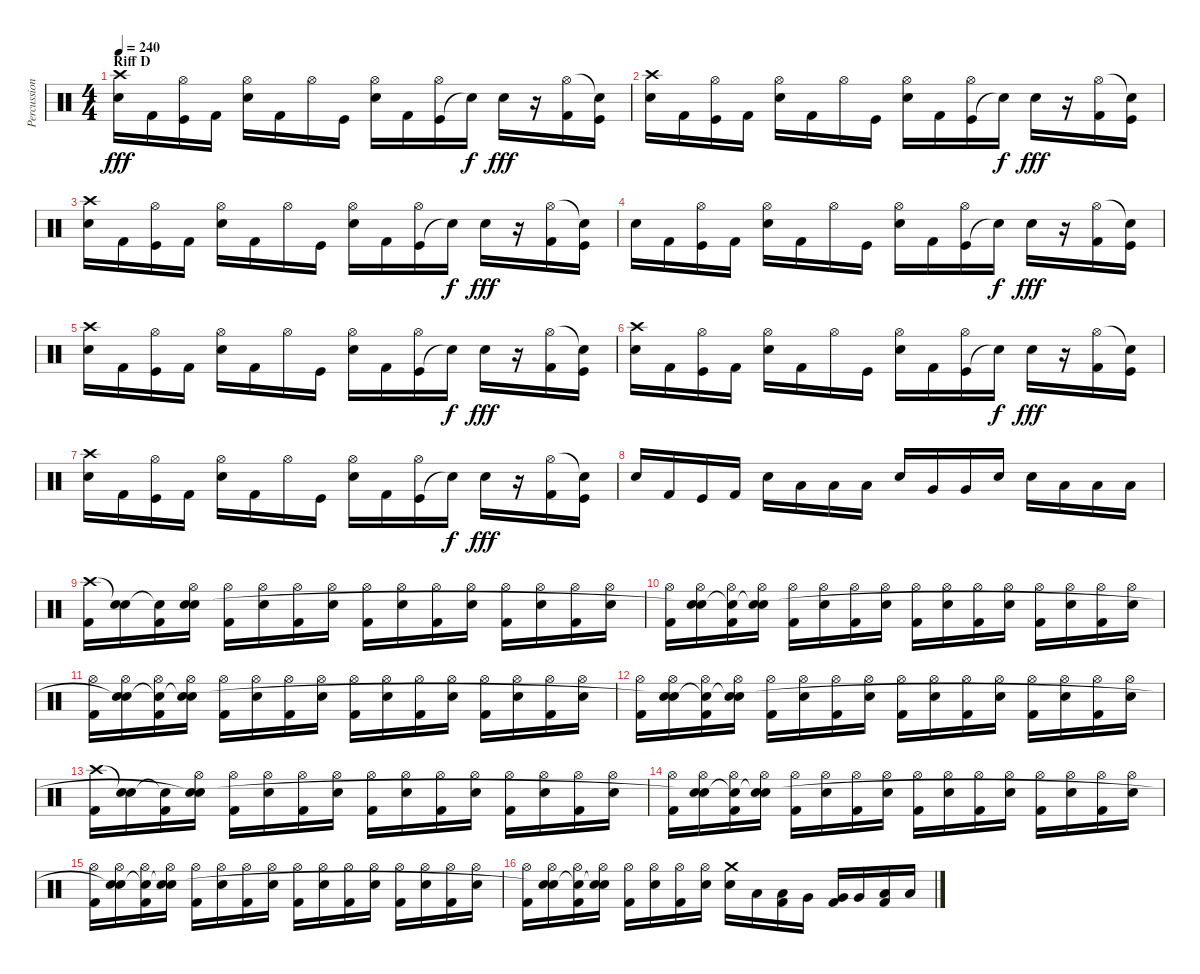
\track ("Percussion" "Percussion") {instrument percussion}
\staff {score}
\articulation defaults
\ts (4 4)
\section ("" "Riff D")
\tempo 240
\clef neutral
\ks c
("Snare (hit) 2" "Crash high (hit)").16{dy fff} "Kick (hit) 2".16 ("Kick (hit)" "Hi-Hat (open)").16 "Kick (hit) 2".16 ("Snare (hit) 2" "Hi-Hat (open)").16 "Kick (hit) 2".16 "Hi-Hat (open)".16 "Kick (hit)".16 ("Snare (hit) 2" "Hi-Hat (open)").16 "Kick (hit) 2".16 ("Kick (hit)" "Hi-Hat (open)").16 "Snare (hit)"{t}.16{dy f} "Snare (hit) 2".16{dy fff} r.16 ("Kick (hit) 2" "Hi-Hat (open)").16 ("Kick (hit)" "Snare (hit)"{t}).16 |
("Snare (hit) 2" "Crash high (hit)").16 "Kick (hit) 2".16 ("Kick (hit)" "Hi-Hat (open)").16 "Kick (hit) 2".16 ("Snare (hit) 2" "Hi-Hat (open)").16 "Kick (hit) 2".16 "Hi-Hat (open)".16 "Kick (hit)".16 ("Snare (hit) 2" "Hi-Hat (open)").16 "Kick (hit) 2".16 ("Kick (hit)" "Hi-Hat (open)").16 "Snare (hit)"{t}.16{dy f} "Snare (hit) 2".16{dy fff} r.16 ("Kick (hit) 2" "Hi-Hat (open)").16 ("Kick (hit)" "Snare (hit)"{t}).16 |
("Snare (hit) 2" "Crash high (hit)").16 "Kick (hit) 2".16 ("Kick (hit)" "Hi-Hat (open)").16 "Kick (hit) 2".16 ("Snare (hit) 2" "Hi-Hat (open)").16 "Kick (hit) 2".16 "Hi-Hat (open)".16 "Kick (hit)".16 ("Snare (hit) 2" "Hi-Hat (open)").16 "Kick (hit) 2".16 ("Kick (hit)" "Hi-Hat (open)").16 "Snare (hit)"{t}.16{dy f} "Snare (hit) 2".16{dy fff} r.16 ("Kick (hit) 2" "Hi-Hat (open)").16 ("Kick (hit)" "Snare (hit)"{t}).16 |
"Snare (hit) 2".16 "Kick (hit) 2".16 ("Kick (hit)" "Hi-Hat (open)").16 "Kick (hit) 2".16 ("Snare (hit) 2" "Hi-Hat (open)").16 "Kick (hit) 2".16 "Hi-Hat (open)".16 "Kick (hit)".16 ("Snare (hit) 2" "Hi-Hat (open)").16 "Kick (hit) 2".16 ("Kick (hit)" "Hi-Hat (open)").16 "Snare (hit)"{t}.16{dy f} "Snare (hit) 2".16{dy fff} r.16 ("Kick (hit) 2" "Hi-Hat (open)").16 ("Kick (hit)" "Snare (hit)"{t}).16 |
("Snare (hit) 2" "Crash high (hit)").16 "Kick (hit) 2".16 ("Kick (hit)" "Hi-Hat (open)").16 "Kick (hit) 2".16 ("Snare (hit) 2" "Hi-Hat (open)").16 "Kick (hit) 2".16 "Hi-Hat (open)".16 "Kick (hit)".16 ("Snare (hit) 2" "Hi-Hat (open)").16 "Kick (hit) 2".16 ("Kick (hit)" "Hi-Hat (open)").16 "Snare (hit)"{t}.16{dy f} "Snare (hit) 2".16{dy fff} r.16 ("Kick (hit) 2" "Hi-Hat (open)").16 ("Kick (hit)" "Snare (hit)"{t}).16 |
("Snare (hit) 2" "Crash high (hit)").16 "Kick (hit) 2".16 ("Kick (hit)" "Hi-Hat (open)").16 "Kick (hit) 2".16 ("Snare (hit) 2" "Hi-Hat (open)").16 "Kick (hit) 2".16 "Hi-Hat (open)".16 "Kick (hit)".16 ("Snare (hit) 2" "Hi-Hat (open)").16 "Kick (hit) 2".16 ("Kick (hit)" "Hi-Hat (open)").16 "Snare (hit)"{t}.16{dy f} "Snare (hit) 2".16{dy fff} r.16 ("Kick (hit) 2" "Hi-Hat (open)").16 ("Kick (hit)" "Snare (hit)"{t}).16 |
("Snare (hit) 2" "Crash high (hit)").16 "Kick (hit) 2".16 ("Kick (hit)" "Hi-Hat (open)").16 "Kick (hit) 2".16 ("Snare (hit) 2" "Hi-Hat (open)").16 "Kick (hit) 2".16 "Hi-Hat (open)".16 "Kick (hit)".16 ("Snare (hit) 2" "Hi-Hat (open)").16 "Kick (hit) 2".16 ("Kick (hit)" "Hi-Hat (open)").16 "Snare (hit)"{t}.16{dy f} "Snare (hit) 2".16{dy fff} r.16 ("Kick (hit) 2" "Hi-Hat (open)").16 ("Kick (hit)" "Snare (hit)"{t}).16 |
"Snare (hit) 2".16 "Kick (hit) 2".16 "Kick (hit)".16 "Kick (hit) 2".16 "Snare (hit) 2".16 "Low Floor Tom (hit)".16 "Low Floor Tom (hit)".16 "Low Floor Tom (hit)".16 "Snare (hit) 2".16 "Very Low Tom (hit)".16 "Very Low Tom (hit)".16 "Snare (hit) 2".16 "Snare (hit) 2".16 "Low Tom (hit)".16 "Low Tom (hit)".16 "Low Tom (hit)".16 |
("Kick (hit) 2" "Crash high (hit)").16 ("Snare (hit) 2" "Snare (hit)"{t}).16 ("Kick (hit) 2" "Snare (hit)"{t}).16 ("Snare (hit) 2" "Hi-Hat (open)" "Snare (hit)").16 ("Kick (hit) 2" "Hi-Hat (open)").16 ("Snare (hit) 2" "Hi-Hat (open)").16 ("Kick (hit) 2" "Hi-Hat (open)").16 ("Snare (hit) 2" "Hi-Hat (open)").16 ("Kick (hit) 2" "Hi-Hat (open)").16 ("Snare (hit) 2" "Hi-Hat (open)").16 ("Kick (hit) 2" "Hi-Hat (open)").16 ("Snare (hit) 2" "Hi-Hat (open)").16 ("Kick (hit) 2" "Hi-Hat (open)").16 ("Snare (hit) 2" "Hi-Hat (open)").16 ("Kick (hit) 2" "Hi-Hat (open)").16 ("Snare (hit) 2" "Hi-Hat (open)").16 |
("Kick (hit) 2" "Hi-Hat (open)").16 ("Snare (hit) 2" "Hi-Hat (open)" "Snare (hit)"{t}).16 ("Kick (hit) 2" "Hi-Hat (open)" "Snare (hit)"{t}).16 ("Snare (hit) 2" "Hi-Hat (open)" "Snare (hit)"{t}).16 ("Kick (hit) 2" "Hi-Hat (open)").16 ("Snare (hit) 2" "Hi-Hat (open)").16 ("Kick (hit) 2" "Hi-Hat (open)").16 ("Snare (hit) 2" "Hi-Hat (open)").16 ("Kick (hit) 2" "Hi-Hat (open)").16 ("Snare (hit) 2" "Hi-Hat (open)").16 ("Kick (hit) 2" "Hi-Hat (open)").16 ("Snare (hit) 2" "Hi-Hat (open)").16 ("Kick (hit) 2" "Hi-Hat (open)").16 ("Snare (hit) 2" "Hi-Hat (open)").16 ("Kick (hit) 2" "Hi-Hat (open)").16 ("Snare (hit) 2" "Hi-Hat (open)").16 |
("Kick (hit) 2" "Hi-Hat (open)").16 ("Snare (hit) 2" "Hi-Hat (open)" "Snare (hit)"{t}).16 ("Kick (hit) 2" "Hi-Hat (open)" "Snare (hit)"{t}).16 ("Snare (hit) 2" "Hi-Hat (open)" "Snare (hit)"{t}).16 ("Kick (hit) 2" "Hi-Hat (open)").16 ("Snare (hit) 2" "Hi-Hat (open)").16 ("Kick (hit) 2" "Hi-Hat (open)").16 ("Snare (hit) 2" "Hi-Hat (open)").16 ("Kick (hit) 2" "Hi-Hat (open)").16 ("Snare (hit) 2" "Hi-Hat (open)").16 ("Kick (hit) 2" "Hi-Hat (open)").16 ("Snare (hit) 2" "Hi-Hat (open)").16 ("Kick (hit) 2" "Hi-Hat (open)").16 ("Snare (hit) 2" "Hi-Hat (open)").16 ("Kick (hit) 2" "Hi-Hat (open)").16 ("Snare (hit) 2" "Hi-Hat (open)").16 |
("Kick (hit) 2" "Hi-Hat (open)").16 ("Snare (hit) 2" "Hi-Hat (open)" "Snare (hit)"{t}).16 ("Kick (hit) 2" "Hi-Hat (open)" "Snare (hit)"{t}).16 ("Snare (hit) 2" "Hi-Hat (open)" "Snare (hit)"{t}).16 ("Kick (hit) 2" "Hi-Hat (open)").16 ("Snare (hit) 2" "Hi-Hat (open)").16 ("Kick (hit) 2" "Hi-Hat (open)").16 ("Snare (hit) 2" "Hi-Hat (open)").16 ("Kick (hit) 2" "Hi-Hat (open)").16 ("Snare (hit) 2" "Hi-Hat (open)").16 ("Kick (hit) 2" "Hi-Hat (open)").16 ("Snare (hit) 2" "Hi-Hat (open)").16 ("Kick (hit) 2" "Hi-Hat (open)").16 ("Snare (hit) 2" "Hi-Hat (open)").16 ("Kick (hit) 2" "Hi-Hat (open)").16 ("Snare (hit) 2" "Hi-Hat (open)").16 |
("Kick (hit) 2" "Crash high (hit)").16 ("Snare (hit) 2" "Snare (hit)"{t}).16 ("Kick (hit) 2" "Snare (hit)"{t}).16 ("Snare (hit) 2" "Hi-Hat (open)" "Snare (hit)"{t}).16 ("Kick (hit) 2" "Hi-Hat (open)").16 ("Snare (hit) 2" "Hi-Hat (open)").16 ("Kick (hit) 2" "Hi-Hat (open)").16 ("Snare (hit) 2" "Hi-Hat (open)").16 ("Kick (hit) 2" "Hi-Hat (open)").16 ("Snare (hit) 2" "Hi-Hat (open)").16 ("Kick (hit) 2" "Hi-Hat (open)").16 ("Snare (hit) 2" "Hi-Hat (open)").16 ("Kick (hit) 2" "Hi-Hat (open)").16 ("Snare (hit) 2" "Hi-Hat (open)").16 ("Kick (hit) 2" "Hi-Hat (open)").16 ("Snare (hit) 2" "Hi-Hat (open)").16 |
("Kick (hit) 2" "Hi-Hat (open)").16 ("Snare (hit) 2" "Hi-Hat (open)" "Snare (hit)"{t}).16 ("Kick (hit) 2" "Hi-Hat (open)" "Snare (hit)"{t}).16 ("Snare (hit) 2" "Hi-Hat (open)" "Snare (hit)"{t}).16 ("Kick (hit) 2" "Hi-Hat (open)").16 ("Snare (hit) 2" "Hi-Hat (open)").16 ("Kick (hit) 2" "Hi-Hat (open)").16 ("Snare (hit) 2" "Hi-Hat (open)").16 ("Kick (hit) 2" "Hi-Hat (open)").16 ("Snare (hit) 2" "Hi-Hat (open)").16 ("Kick (hit) 2" "Hi-Hat (open)").16 ("Snare (hit) 2" "Hi-Hat (open)").16 ("Kick (hit) 2" "Hi-Hat (open)").16 ("Snare (hit) 2" "Hi-Hat (open)").16 ("Kick (hit) 2" "Hi-Hat (open)").16 ("Snare (hit) 2" "Hi-Hat (open)").16 |
("Kick (hit) 2" "Hi-Hat (open)").16 ("Snare (hit) 2" "Hi-Hat (open)" "Snare (hit)"{t}).16 ("Kick (hit) 2" "Hi-Hat (open)" "Snare (hit)"{t}).16 ("Snare (hit) 2" "Hi-Hat (open)" "Snare (hit)"{t}).16 ("Kick (hit) 2" "Hi-Hat (open)").16 ("Snare (hit) 2" "Hi-Hat (open)").16 ("Kick (hit) 2" "Hi-Hat (open)").16 ("Snare (hit) 2" "Hi-Hat (open)").16 ("Kick (hit) 2" "Hi-Hat (open)").16 ("Snare (hit) 2" "Hi-Hat (open)").16 ("Kick (hit) 2" "Hi-Hat (open)").16 ("Snare (hit) 2" "Hi-Hat (open)").16 ("Kick (hit) 2" "Hi-Hat (open)").16 ("Snare (hit) 2" "Hi-Hat (open)").16 ("Kick (hit) 2" "Hi-Hat (open)").16 ("Snare (hit) 2" "Hi-Hat (open)").16 |
("Kick (hit) 2" "Hi-Hat (open)").16 ("Snare (hit) 2" "Hi-Hat (open)" "Snare (hit)"{t}).16 ("Kick (hit) 2" "Hi-Hat (open)" "Snare (hit)"{t}).16 ("Snare (hit) 2" "Hi-Hat (open)" "Snare (hit)"{t}).16 ("Kick (hit) 2" "Hi-Hat (open)").16 ("Snare (hit) 2" "Hi-Hat (open)").16 ("Kick (hit) 2" "Hi-Hat (open)").16 ("Snare (hit) 2" "Hi-Hat (open)").16 ("Snare (hit) 2" "Crash medium (hit)").16 "Low Tom (hit)".16 ("Kick (hit) 2" "Low Tom (hit)").16 "Very Low Tom (hit)".16 ("Kick (hit) 2" "Very Low Tom (hit)").16 "Very Low Tom (hit)".16 ("Kick (hit) 2" "Low Floor Tom (hit)").16 "Low Floor Tom (hit)".16
